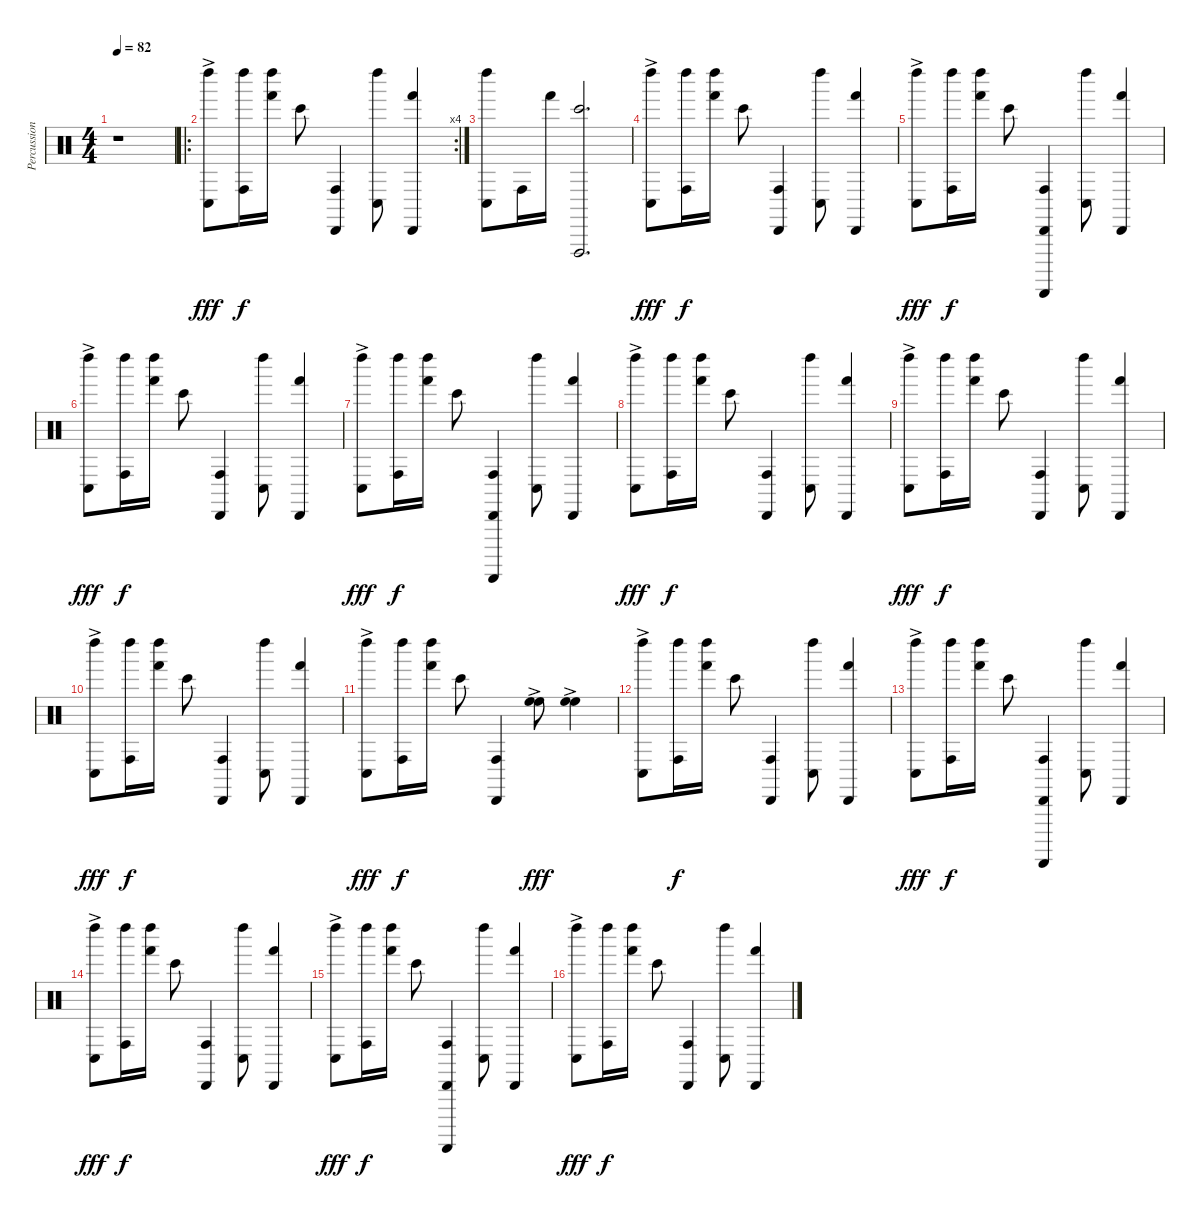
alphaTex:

\track ("Percussion" "Percussion") {instrument percussion}
\staff {score}
\articulation defaults
\ts (4 4)
\tempo 82
\clef neutral
\ks c
r.1{dy fff} |
\ro
\rc 4
("Conga low (hit)"{ac} "Left Maraca (hit)").8 ("Conga high (hit)" "Left Maraca (hit)").16{dy f} ("Hand (hit)" "Left Maraca (hit)").16 "Bongo High (hit)".8 ("Conga high (hit)" "Cabasa (hit)").4 ("Conga low (hit)" "Left Maraca (hit)").8 ("Hand (hit)" "Cabasa (hit)").4 |
("Conga low (hit)" "Left Maraca (hit)").8 "Conga high (hit)".16 "Hand (hit)".16 ("Bongo High (hit)" "Vibraslap (hit)").2{d} |
("Conga low (hit)"{ac} "Left Maraca (hit)").8{dy fff} ("Conga high (hit)" "Left Maraca (hit)").16{dy f} ("Hand (hit)" "Left Maraca (hit)").16 "Bongo High (hit)".8 ("Conga high (hit)" "Cabasa (hit)").4 ("Conga low (hit)" "Left Maraca (hit)").8 ("Hand (hit)" "Cabasa (hit)").4 |
("Conga low (hit)"{ac} "Left Maraca (hit)").8{dy fff} ("Conga high (hit)" "Left Maraca (hit)").16{dy f} ("Hand (hit)" "Left Maraca (hit)").16 "Bongo High (hit)".8 ("Conga high (hit)" "Cabasa (hit)" "Guiro (scrap-return)").4 ("Conga low (hit)" "Left Maraca (hit)").8 ("Hand (hit)" "Cabasa (hit)").4 |
("Conga low (hit)"{ac} "Left Maraca (hit)").8{dy fff} ("Conga high (hit)" "Left Maraca (hit)").16{dy f} ("Hand (hit)" "Left Maraca (hit)").16 "Bongo High (hit)".8 ("Conga high (hit)" "Cabasa (hit)").4 ("Conga low (hit)" "Left Maraca (hit)").8 ("Hand (hit)" "Cabasa (hit)").4 |
("Conga low (hit)"{ac} "Left Maraca (hit)").8{dy fff} ("Conga high (hit)" "Left Maraca (hit)").16{dy f} ("Hand (hit)" "Left Maraca (hit)").16 "Bongo High (hit)".8 ("Conga high (hit)" "Cabasa (hit)" "Guiro (scrap-return)").4 ("Conga low (hit)" "Left Maraca (hit)").8 ("Hand (hit)" "Cabasa (hit)").4 |
("Conga low (hit)"{ac} "Left Maraca (hit)").8{dy fff} ("Conga high (hit)" "Left Maraca (hit)").16{dy f} ("Hand (hit)" "Left Maraca (hit)").16 "Bongo High (hit)".8 ("Conga high (hit)" "Cabasa (hit)").4 ("Conga low (hit)" "Left Maraca (hit)").8 ("Hand (hit)" "Cabasa (hit)").4 |
("Conga low (hit)"{ac} "Left Maraca (hit)").8{dy fff} ("Conga high (hit)" "Left Maraca (hit)").16{dy f} ("Hand (hit)" "Left Maraca (hit)").16 "Bongo High (hit)".8 ("Conga high (hit)" "Cabasa (hit)").4 ("Conga low (hit)" "Left Maraca (hit)").8 ("Hand (hit)" "Cabasa (hit)").4 |
("Conga low (hit)"{ac} "Left Maraca (hit)").8{dy fff} ("Conga high (hit)" "Left Maraca (hit)").16{dy f} ("Hand (hit)" "Left Maraca (hit)").16 "Bongo High (hit)".8 ("Conga high (hit)" "Cabasa (hit)").4 ("Conga low (hit)" "Left Maraca (hit)").8 ("Hand (hit)" "Cabasa (hit)").4 |
("Conga low (hit)"{ac} "Left Maraca (hit)").8{dy fff} ("Conga high (hit)" "Left Maraca (hit)").16{dy f} ("Hand (hit)" "Left Maraca (hit)").16 "Bongo High (hit)".8 ("Conga high (hit)" "Cabasa (hit)").4 ("High Floor Tom (hit)" "High Floor Tom (hit)"{ac}).8{dy fff} ("High Floor Tom (hit)" "High Floor Tom (hit)"{ac}).4 |
("Conga low (hit)"{ac} "Left Maraca (hit)").8 ("Conga high (hit)" "Left Maraca (hit)").16{dy f} ("Hand (hit)" "Left Maraca (hit)").16 "Bongo High (hit)".8 ("Conga high (hit)" "Cabasa (hit)").4 ("Conga low (hit)" "Left Maraca (hit)").8 ("Hand (hit)" "Cabasa (hit)").4 |
("Conga low (hit)"{ac} "Left Maraca (hit)").8{dy fff} ("Conga high (hit)" "Left Maraca (hit)").16{dy f} ("Hand (hit)" "Left Maraca (hit)").16 "Bongo High (hit)".8 ("Conga high (hit)" "Cabasa (hit)" "Guiro (scrap-return)").4 ("Conga low (hit)" "Left Maraca (hit)").8 ("Hand (hit)" "Cabasa (hit)").4 |
("Conga low (hit)"{ac} "Left Maraca (hit)").8{dy fff} ("Conga high (hit)" "Left Maraca (hit)").16{dy f} ("Hand (hit)" "Left Maraca (hit)").16 "Bongo High (hit)".8 ("Conga high (hit)" "Cabasa (hit)").4 ("Conga low (hit)" "Left Maraca (hit)").8 ("Hand (hit)" "Cabasa (hit)").4 |
("Conga low (hit)"{ac} "Left Maraca (hit)").8{dy fff} ("Conga high (hit)" "Left Maraca (hit)").16{dy f} ("Hand (hit)" "Left Maraca (hit)").16 "Bongo High (hit)".8 ("Conga high (hit)" "Cabasa (hit)" "Guiro (scrap-return)").4 ("Conga low (hit)" "Left Maraca (hit)").8 ("Hand (hit)" "Cabasa (hit)").4 |
("Conga low (hit)"{ac} "Left Maraca (hit)").8{dy fff} ("Conga high (hit)" "Left Maraca (hit)").16{dy f} ("Hand (hit)" "Left Maraca (hit)").16 "Bongo High (hit)".8 ("Conga high (hit)" "Cabasa (hit)").4 ("Conga low (hit)" "Left Maraca (hit)").8 ("Hand (hit)" "Cabasa (hit)").4
